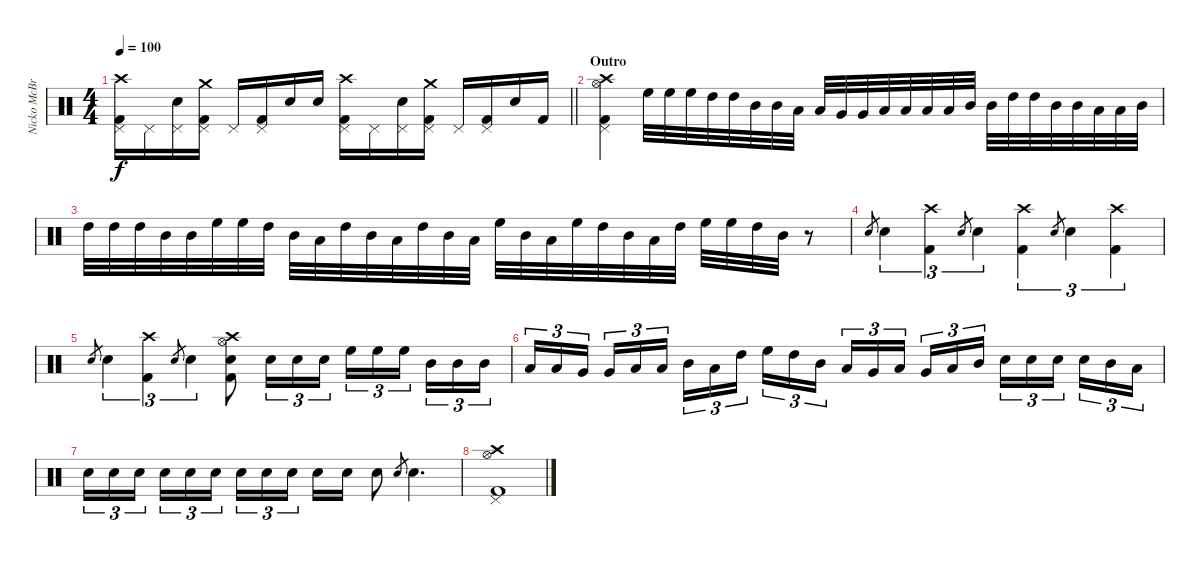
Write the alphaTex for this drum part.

\track ("Nicko McBrain" "Nicko McBr") {instrument percussion}
\staff {score}
\articulation defaults
\ts (4 4)
\tempo 100
\clef neutral
\barLineRight lightlight
\ks c
("Kick (hit) 2" "Pedal Hi-Hat (hit)" "Crash high (hit)").16{dy f} "Pedal Hi-Hat (hit)".16 ("Snare (hit) 2" "Pedal Hi-Hat (hit)").16 ("Kick (hit) 2" "Pedal Hi-Hat (hit)" "Crash medium (hit)").16 "Pedal Hi-Hat (hit)".16 ("Kick (hit) 2" "Pedal Hi-Hat (hit)").16 "Snare (hit) 2".16 "Snare (hit) 2".16 ("Kick (hit) 2" "Pedal Hi-Hat (hit)" "Crash high (hit)").16 "Pedal Hi-Hat (hit)".16 ("Snare (hit) 2" "Pedal Hi-Hat (hit)").16 ("Kick (hit) 2" "Pedal Hi-Hat (hit)" "Crash medium (hit)").16 "Pedal Hi-Hat (hit)".16 ("Kick (hit) 2" "Pedal Hi-Hat (hit)").16 "Snare (hit) 2".16 "Kick (hit) 2".16 |
\section ("" "Outro")
("Kick (hit) 2" "Pedal Hi-Hat (hit)" "Hi-Hat (open)" "Crash high (hit)").4 "High Floor Tom (hit)".32 "High Floor Tom (hit)".32 "High Floor Tom (hit)".32 "High Tom (hit)".32 "High Tom (hit)".32 "Mid Tom (hit)".32 "Mid Tom (hit)".32 "Low Tom (hit)".32 "Low Tom (hit)".32 "Very Low Tom (hit)".32 "Very Low Tom (hit)".32 "Low Floor Tom (hit)".32 "Low Floor Tom (hit)".32 "Low Tom (hit)".32 "Low Tom (hit)".32 "Mid Tom (hit)".32 "Mid Tom (hit)".32 "High Tom (hit)".32 "High Tom (hit)".32 "Mid Tom (hit)".32 "Mid Tom (hit)".32 "Low Tom (hit)".32 "Low Tom (hit)".32 "Mid Tom (hit)".32 |
"High Tom (hit)".32 "High Tom (hit)".32 "High Tom (hit)".32 "Mid Tom (hit)".32 "Mid Tom (hit)".32 "High Floor Tom (hit)".32 "High Floor Tom (hit)".32 "High Tom (hit)".32 "Mid Tom (hit)".32 "Low Tom (hit)".32 "High Tom (hit)".32 "Mid Tom (hit)".32 "Low Tom (hit)".32 "High Tom (hit)".32 "Mid Tom (hit)".32 "Low Tom (hit)".32 "High Floor Tom (hit)".32 "Mid Tom (hit)".32 "Low Tom (hit)".32 "High Floor Tom (hit)".32 "High Tom (hit)".32 "Mid Tom (hit)".32 "Low Tom (hit)".32 "High Tom (hit)".32 "High Floor Tom (hit)".32 "High Floor Tom (hit)".32 "High Tom (hit)".32 "Mid Tom (hit)".32 r.8 |
"Snare (hit) 2".8{gr} "Snare (hit) 2".4{tu (3 2)} ("Kick (hit) 2" "Crash high (hit)").4{tu (3 2)} "Snare (hit) 2".8{gr} "Snare (hit) 2".4{tu (3 2)} ("Kick (hit) 2" "Crash high (hit)").4{tu (3 2)} "Snare (hit) 2".8{gr} "Snare (hit) 2".4{tu (3 2)} ("Kick (hit) 2" "Crash high (hit)").4{tu (3 2)} |
"Snare (hit) 2".8{gr} "Snare (hit) 2".4{tu (3 2)} ("Kick (hit) 2" "Crash high (hit)").4{tu (3 2)} "Snare (hit) 2".8{gr} "Snare (hit) 2".4{tu (3 2)} ("Snare (hit) 2" "Kick (hit) 2" "Hi-Hat (open)" "Crash high (hit)").8 "Snare (hit) 2".16{tu (3 2)} "Snare (hit) 2".16{tu (3 2)} "Snare (hit) 2".16{tu (3 2)} "High Floor Tom (hit)".16{tu (3 2)} "High Floor Tom (hit)".16{tu (3 2)} "High Floor Tom (hit)".16{tu (3 2) beam splitsecondary} "Mid Tom (hit)".16{tu (3 2)} "Mid Tom (hit)".16{tu (3 2)} "Mid Tom (hit)".16{tu (3 2)} |
"Low Tom (hit)".16{tu (3 2)} "Low Tom (hit)".16{tu (3 2)} "Very Low Tom (hit)".16{tu (3 2) beam splitsecondary} "Very Low Tom (hit)".16{tu (3 2)} "Low Floor Tom (hit)".16{tu (3 2)} "Low Floor Tom (hit)".16{tu (3 2)} "Mid Tom (hit)".16{tu (3 2)} "Low Tom (hit)".16{tu (3 2)} "High Tom (hit)".16{tu (3 2) beam splitsecondary} "High Floor Tom (hit)".16{tu (3 2)} "High Tom (hit)".16{tu (3 2)} "Mid Tom (hit)".16{tu (3 2)} "Low Tom (hit)".16{tu (3 2)} "Very Low Tom (hit)".16{tu (3 2)} "Low Floor Tom (hit)".16{tu (3 2) beam splitsecondary} "Very Low Tom (hit)".16{tu (3 2)} "Low Tom (hit)".16{tu (3 2)} "Mid Tom (hit)".16{tu (3 2)} "Snare (hit) 2".16{tu (3 2)} "Snare (hit) 2".16{tu (3 2)} "Snare (hit) 2".16{tu (3 2) beam splitsecondary} "Snare (hit) 2".16{tu (3 2)} "Mid Tom (hit)".16{tu (3 2)} "Low Tom (hit)".16{tu (3 2)} |
"Snare (hit) 2".16{tu (3 2)} "Snare (hit) 2".16{tu (3 2)} "Snare (hit) 2".16{tu (3 2) beam splitsecondary} "Snare (hit) 2".16{tu (3 2)} "Snare (hit) 2".16{tu (3 2)} "Snare (hit) 2".16{tu (3 2)} "Snare (hit) 2".16{tu (3 2)} "Snare (hit) 2".16{tu (3 2)} "Snare (hit) 2".16{tu (3 2) beam splitsecondary} "Snare (hit) 2".16 "Snare (hit) 2".16 "Snare (hit) 2".8 "Snare (hit) 2".8{gr} "Snare (hit) 2".4{d} |
("Kick (hit) 2" "Pedal Hi-Hat (hit)" "Hi-Hat (open)" "Crash high (hit)").1
